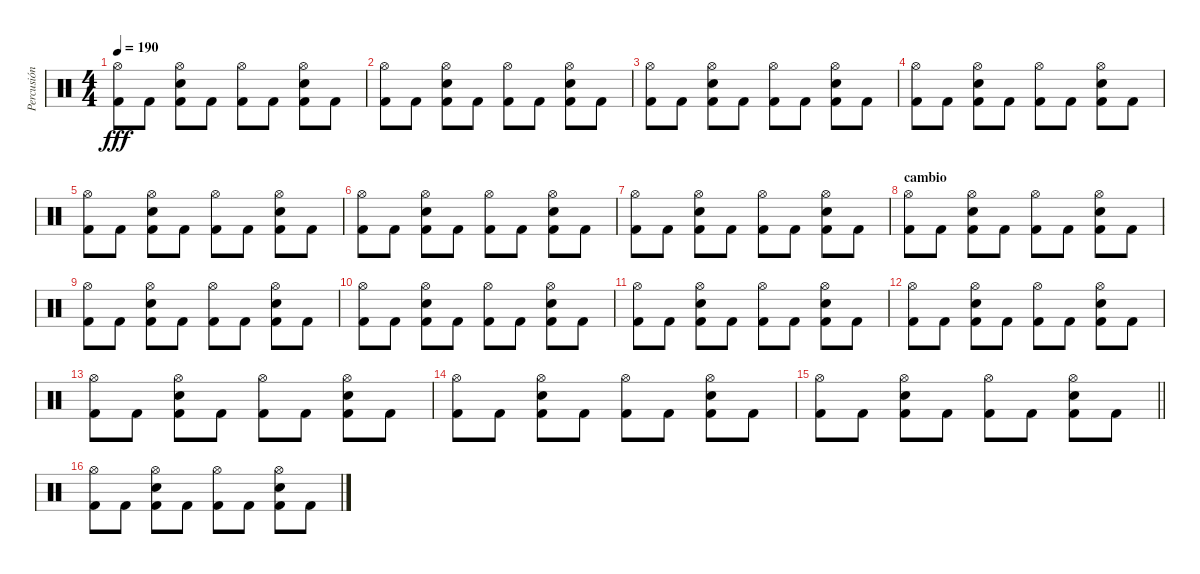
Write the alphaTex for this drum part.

\track ("Percusión" "Percusión") {instrument percussion}
\staff {score}
\articulation defaults
\ts (4 4)
\tempo 190
\clef neutral
\ks c
("Hi-Hat (open)" "Kick (hit) 2").8{dy fff} "Kick (hit) 2".8 ("Hi-Hat (open)" "Electric Snare (hit)" "Kick (hit) 2").8 "Kick (hit) 2".8 ("Hi-Hat (open)" "Kick (hit) 2").8 "Kick (hit) 2".8 ("Hi-Hat (open)" "Electric Snare (hit)" "Kick (hit) 2").8 "Kick (hit) 2".8 |
("Hi-Hat (open)" "Kick (hit) 2").8 "Kick (hit) 2".8 ("Hi-Hat (open)" "Electric Snare (hit)" "Kick (hit) 2").8 "Kick (hit) 2".8 ("Hi-Hat (open)" "Kick (hit) 2").8 "Kick (hit) 2".8 ("Hi-Hat (open)" "Electric Snare (hit)" "Kick (hit) 2").8 "Kick (hit) 2".8 |
("Hi-Hat (open)" "Kick (hit) 2").8 "Kick (hit) 2".8 ("Hi-Hat (open)" "Electric Snare (hit)" "Kick (hit) 2").8 "Kick (hit) 2".8 ("Hi-Hat (open)" "Kick (hit) 2").8 "Kick (hit) 2".8 ("Hi-Hat (open)" "Electric Snare (hit)" "Kick (hit) 2").8 "Kick (hit) 2".8 |
("Hi-Hat (open)" "Kick (hit) 2").8 "Kick (hit) 2".8 ("Hi-Hat (open)" "Electric Snare (hit)" "Kick (hit) 2").8 "Kick (hit) 2".8 ("Hi-Hat (open)" "Kick (hit) 2").8 "Kick (hit) 2".8 ("Hi-Hat (open)" "Electric Snare (hit)" "Kick (hit) 2").8 "Kick (hit) 2".8 |
("Hi-Hat (open)" "Kick (hit) 2").8 "Kick (hit) 2".8 ("Hi-Hat (open)" "Electric Snare (hit)" "Kick (hit) 2").8 "Kick (hit) 2".8 ("Hi-Hat (open)" "Kick (hit) 2").8 "Kick (hit) 2".8 ("Hi-Hat (open)" "Electric Snare (hit)" "Kick (hit) 2").8 "Kick (hit) 2".8 |
("Hi-Hat (open)" "Kick (hit) 2").8 "Kick (hit) 2".8 ("Hi-Hat (open)" "Electric Snare (hit)" "Kick (hit) 2").8 "Kick (hit) 2".8 ("Hi-Hat (open)" "Kick (hit) 2").8 "Kick (hit) 2".8 ("Hi-Hat (open)" "Electric Snare (hit)" "Kick (hit) 2").8 "Kick (hit) 2".8 |
("Hi-Hat (open)" "Kick (hit) 2").8 "Kick (hit) 2".8 ("Hi-Hat (open)" "Electric Snare (hit)" "Kick (hit) 2").8 "Kick (hit) 2".8 ("Hi-Hat (open)" "Kick (hit) 2").8 "Kick (hit) 2".8 ("Hi-Hat (open)" "Electric Snare (hit)" "Kick (hit) 2").8 "Kick (hit) 2".8 |
\section ("" "cambio")
("Hi-Hat (open)" "Kick (hit) 2").8 "Kick (hit) 2".8 ("Hi-Hat (open)" "Electric Snare (hit)" "Kick (hit) 2").8 "Kick (hit) 2".8 ("Hi-Hat (open)" "Kick (hit) 2").8 "Kick (hit) 2".8 ("Hi-Hat (open)" "Electric Snare (hit)" "Kick (hit) 2").8 "Kick (hit) 2".8 |
("Hi-Hat (open)" "Kick (hit) 2").8 "Kick (hit) 2".8 ("Hi-Hat (open)" "Electric Snare (hit)" "Kick (hit) 2").8 "Kick (hit) 2".8 ("Hi-Hat (open)" "Kick (hit) 2").8 "Kick (hit) 2".8 ("Hi-Hat (open)" "Electric Snare (hit)" "Kick (hit) 2").8 "Kick (hit) 2".8 |
("Hi-Hat (open)" "Kick (hit) 2").8 "Kick (hit) 2".8 ("Hi-Hat (open)" "Electric Snare (hit)" "Kick (hit) 2").8 "Kick (hit) 2".8 ("Hi-Hat (open)" "Kick (hit) 2").8 "Kick (hit) 2".8 ("Hi-Hat (open)" "Electric Snare (hit)" "Kick (hit) 2").8 "Kick (hit) 2".8 |
("Hi-Hat (open)" "Kick (hit) 2").8 "Kick (hit) 2".8 ("Hi-Hat (open)" "Electric Snare (hit)" "Kick (hit) 2").8 "Kick (hit) 2".8 ("Hi-Hat (open)" "Kick (hit) 2").8 "Kick (hit) 2".8 ("Hi-Hat (open)" "Electric Snare (hit)" "Kick (hit) 2").8 "Kick (hit) 2".8 |
("Hi-Hat (open)" "Kick (hit) 2").8 "Kick (hit) 2".8 ("Hi-Hat (open)" "Electric Snare (hit)" "Kick (hit) 2").8 "Kick (hit) 2".8 ("Hi-Hat (open)" "Kick (hit) 2").8 "Kick (hit) 2".8 ("Hi-Hat (open)" "Electric Snare (hit)" "Kick (hit) 2").8 "Kick (hit) 2".8 |
("Hi-Hat (open)" "Kick (hit) 2").8 "Kick (hit) 2".8 ("Hi-Hat (open)" "Electric Snare (hit)" "Kick (hit) 2").8 "Kick (hit) 2".8 ("Hi-Hat (open)" "Kick (hit) 2").8 "Kick (hit) 2".8 ("Hi-Hat (open)" "Electric Snare (hit)" "Kick (hit) 2").8 "Kick (hit) 2".8 |
("Hi-Hat (open)" "Kick (hit) 2").8 "Kick (hit) 2".8 ("Hi-Hat (open)" "Electric Snare (hit)" "Kick (hit) 2").8 "Kick (hit) 2".8 ("Hi-Hat (open)" "Kick (hit) 2").8 "Kick (hit) 2".8 ("Hi-Hat (open)" "Electric Snare (hit)" "Kick (hit) 2").8 "Kick (hit) 2".8 |
\barLineRight lightlight
("Hi-Hat (open)" "Kick (hit) 2").8 "Kick (hit) 2".8 ("Hi-Hat (open)" "Electric Snare (hit)" "Kick (hit) 2").8 "Kick (hit) 2".8 ("Hi-Hat (open)" "Kick (hit) 2").8 "Kick (hit) 2".8 ("Hi-Hat (open)" "Electric Snare (hit)" "Kick (hit) 2").8 "Kick (hit) 2".8 |
("Hi-Hat (open)" "Kick (hit) 2").8 "Kick (hit) 2".8 ("Hi-Hat (open)" "Electric Snare (hit)" "Kick (hit) 2").8 "Kick (hit) 2".8 ("Hi-Hat (open)" "Kick (hit) 2").8 "Kick (hit) 2".8 ("Hi-Hat (open)" "Electric Snare (hit)" "Kick (hit) 2").8 "Kick (hit) 2".8
